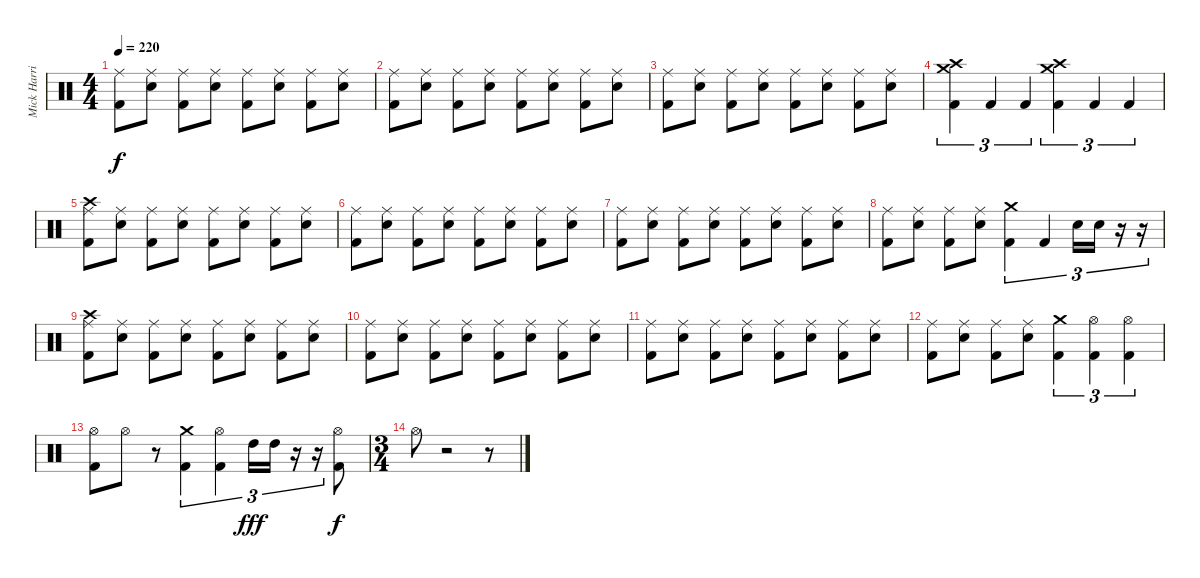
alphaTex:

\track ("Mick Harris (Drums)" "Mick Harri") {instrument percussion}
\staff {score}
\articulation defaults
\ts (4 4)
\tempo 220
\clef neutral
\ks c
("Kick (hit) 2" "Ride (middle)").8{dy f} ("Electric Snare (hit)" "Ride (middle)").8 ("Kick (hit) 2" "Ride (middle)").8 ("Electric Snare (hit)" "Ride (middle)").8 ("Kick (hit) 2" "Ride (middle)").8 ("Electric Snare (hit)" "Ride (middle)").8 ("Kick (hit) 2" "Ride (middle)").8 ("Electric Snare (hit)" "Ride (middle)").8 |
("Kick (hit) 2" "Ride (middle)").8 ("Electric Snare (hit)" "Ride (middle)").8 ("Kick (hit) 2" "Ride (middle)").8 ("Electric Snare (hit)" "Ride (middle)").8 ("Kick (hit) 2" "Ride (middle)").8 ("Electric Snare (hit)" "Ride (middle)").8 ("Kick (hit) 2" "Ride (middle)").8 ("Electric Snare (hit)" "Ride (middle)").8 |
("Kick (hit) 2" "Ride (middle)").8 ("Electric Snare (hit)" "Ride (middle)").8 ("Kick (hit) 2" "Ride (middle)").8 ("Electric Snare (hit)" "Ride (middle)").8 ("Kick (hit) 2" "Ride (middle)").8 ("Electric Snare (hit)" "Ride (middle)").8 ("Kick (hit) 2" "Ride (middle)").8 ("Electric Snare (hit)" "Ride (middle)").8 |
("Kick (hit) 2" "Crash high (hit)" "Crash medium (hit)").4{tu (3 2)} "Kick (hit) 2".4{tu (3 2)} "Kick (hit) 2".4{tu (3 2)} ("Kick (hit) 2" "Crash high (hit)" "Crash medium (hit)").4{tu (3 2)} "Kick (hit) 2".4{tu (3 2)} "Kick (hit) 2".4{tu (3 2)} |
("Kick (hit) 2" "Crash high (hit)" "Ride (middle)").8 ("Electric Snare (hit)" "Ride (middle)").8 ("Kick (hit) 2" "Ride (middle)").8 ("Electric Snare (hit)" "Ride (middle)").8 ("Kick (hit) 2" "Ride (middle)").8 ("Electric Snare (hit)" "Ride (middle)").8 ("Kick (hit) 2" "Ride (middle)").8 ("Electric Snare (hit)" "Ride (middle)").8 |
("Kick (hit) 2" "Ride (middle)").8 ("Electric Snare (hit)" "Ride (middle)").8 ("Kick (hit) 2" "Ride (middle)").8 ("Electric Snare (hit)" "Ride (middle)").8 ("Kick (hit) 2" "Ride (middle)").8 ("Electric Snare (hit)" "Ride (middle)").8 ("Kick (hit) 2" "Ride (middle)").8 ("Electric Snare (hit)" "Ride (middle)").8 |
("Kick (hit) 2" "Ride (middle)").8 ("Electric Snare (hit)" "Ride (middle)").8 ("Kick (hit) 2" "Ride (middle)").8 ("Electric Snare (hit)" "Ride (middle)").8 ("Kick (hit) 2" "Ride (middle)").8 ("Electric Snare (hit)" "Ride (middle)").8 ("Kick (hit) 2" "Ride (middle)").8 ("Electric Snare (hit)" "Ride (middle)").8 |
("Kick (hit) 2" "Ride (middle)").8 ("Electric Snare (hit)" "Ride (middle)").8 ("Kick (hit) 2" "Ride (middle)").8 ("Electric Snare (hit)" "Ride (middle)").8 ("Kick (hit) 2" "Crash medium (hit)").4{tu (3 2)} "Kick (hit) 2".4{tu (3 2)} "Electric Snare (hit)".16{tu (3 2)} "Electric Snare (hit)".16{tu (3 2)} r.16{tu (3 2)} r.16{tu (3 2)} |
("Kick (hit) 2" "Crash high (hit)" "Ride (middle)").8 ("Electric Snare (hit)" "Ride (middle)").8 ("Kick (hit) 2" "Ride (middle)").8 ("Electric Snare (hit)" "Ride (middle)").8 ("Kick (hit) 2" "Ride (middle)").8 ("Electric Snare (hit)" "Ride (middle)").8 ("Kick (hit) 2" "Ride (middle)").8 ("Electric Snare (hit)" "Ride (middle)").8 |
("Kick (hit) 2" "Ride (middle)").8 ("Electric Snare (hit)" "Ride (middle)").8 ("Kick (hit) 2" "Ride (middle)").8 ("Electric Snare (hit)" "Ride (middle)").8 ("Kick (hit) 2" "Ride (middle)").8 ("Electric Snare (hit)" "Ride (middle)").8 ("Kick (hit) 2" "Ride (middle)").8 ("Electric Snare (hit)" "Ride (middle)").8 |
("Kick (hit) 2" "Ride (middle)").8 ("Electric Snare (hit)" "Ride (middle)").8 ("Kick (hit) 2" "Ride (middle)").8 ("Electric Snare (hit)" "Ride (middle)").8 ("Kick (hit) 2" "Ride (middle)").8 ("Electric Snare (hit)" "Ride (middle)").8 ("Kick (hit) 2" "Ride (middle)").8 ("Electric Snare (hit)" "Ride (middle)").8 |
("Kick (hit) 2" "Ride (middle)").8 ("Electric Snare (hit)" "Ride (middle)").8 ("Kick (hit) 2" "Ride (middle)").8 ("Electric Snare (hit)" "Ride (middle)").8 ("Kick (hit) 2" "Crash medium (hit)").4{tu (3 2)} ("Kick (hit) 2" "Hi-Hat (open)").4{tu (3 2)} ("Kick (hit) 2" "Hi-Hat (open)").4{tu (3 2)} |
("Kick (hit) 2" "Hi-Hat (open)").8 "Hi-Hat (open)".8{volume 0} r.8 ("Kick (hit) 2" "Crash medium (hit)").4{tu (3 2) volume 16} ("Kick (hit) 2" "Hi-Hat (open)").4{tu (3 2)} "High Tom (hit)".16{tu (3 2) dy fff} "High Tom (hit)".16{tu (3 2)} r.16{tu (3 2)} r.16{tu (3 2)} ("Kick (hit) 2" "Hi-Hat (open)").8{dy f} |
\ts (3 4)
"Hi-Hat (open)".8{volume 0} r.2 r.8
